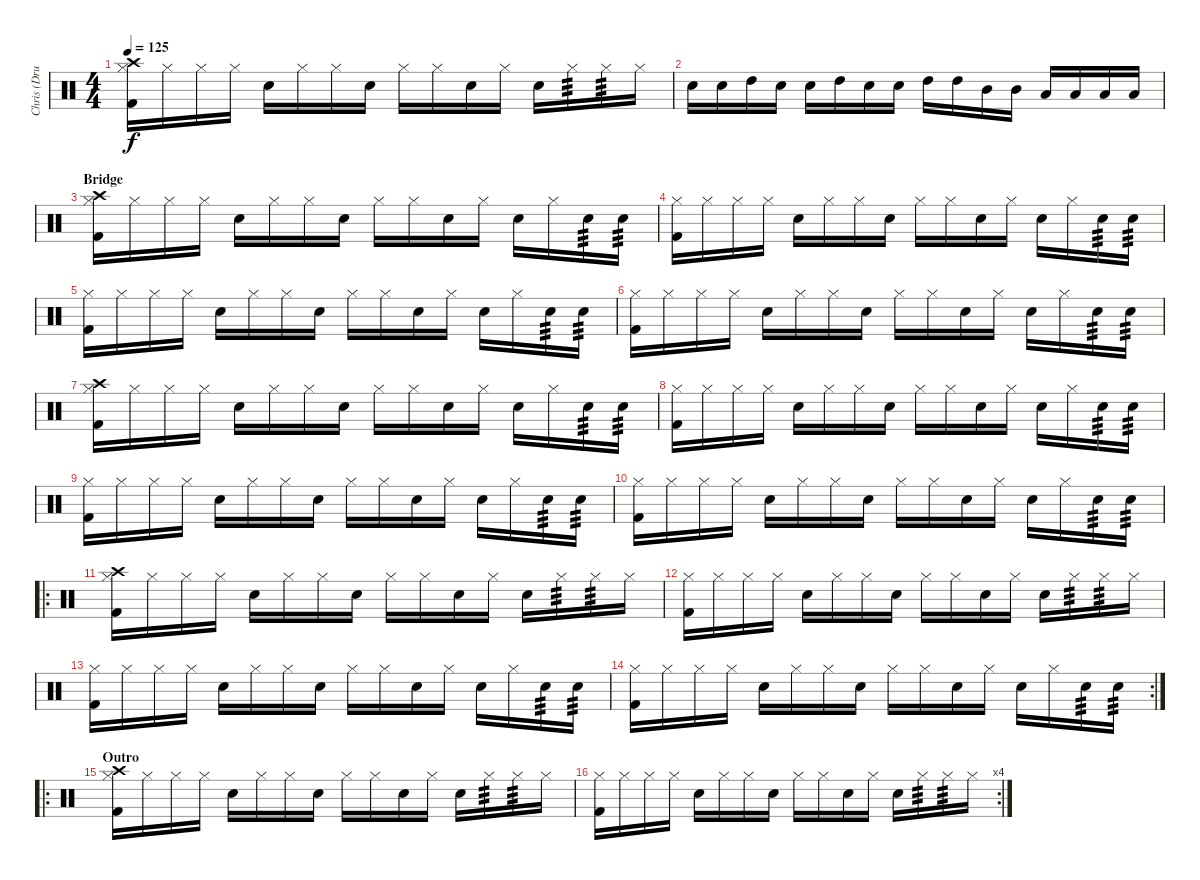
\track ("Chris (Drums)" "Chris (Dru") {instrument percussion}
\staff {score}
\articulation defaults
\ts (4 4)
\tempo 125
\clef neutral
\ks c
("Crash high (hit)" "Hi-Hat (closed)" "Kick (hit) 2").16{dy f} "Hi-Hat (closed)".16 "Hi-Hat (closed)".16 "Hi-Hat (closed)".16 "Snare (hit) 2".16 "Hi-Hat (closed)".16 "Hi-Hat (closed)".16 "Snare (hit) 2".16 "Hi-Hat (closed)".16 "Hi-Hat (closed)".16 "Snare (hit) 2".16 "Hi-Hat (closed)".16 "Snare (hit) 2".16 "Hi-Hat (closed)".16{tp 3} "Hi-Hat (closed)".16{tp 3} "Hi-Hat (closed)".16 |
"Snare (hit) 2".16 "Snare (hit) 2".16 "High Tom (hit)".16 "Snare (hit) 2".16 "Snare (hit) 2".16 "High Tom (hit)".16 "Snare (hit) 2".16 "Snare (hit) 2".16 "High Tom (hit)".16 "High Tom (hit)".16 "Mid Tom (hit)".16 "Mid Tom (hit)".16 "Low Tom (hit)".16 "Low Tom (hit)".16 "Low Tom (hit)".16 "Low Tom (hit)".16 |
\section ("" "Bridge")
("Crash high (hit)" "Hi-Hat (closed)" "Kick (hit) 2").16 "Hi-Hat (closed)".16 "Hi-Hat (closed)".16 "Hi-Hat (closed)".16 "Snare (hit) 2".16 "Hi-Hat (closed)".16 "Hi-Hat (closed)".16 "Snare (hit) 2".16 "Hi-Hat (closed)".16 "Hi-Hat (closed)".16 "Snare (hit) 2".16 "Hi-Hat (closed)".16 "Snare (hit) 2".16 "Hi-Hat (closed)".16 "Snare (hit) 2".16{tp 3} "Snare (hit) 2".16{tp 3} |
("Hi-Hat (closed)" "Kick (hit) 2").16 "Hi-Hat (closed)".16 "Hi-Hat (closed)".16 "Hi-Hat (closed)".16 "Snare (hit) 2".16 "Hi-Hat (closed)".16 "Hi-Hat (closed)".16 "Snare (hit) 2".16 "Hi-Hat (closed)".16 "Hi-Hat (closed)".16 "Snare (hit) 2".16 "Hi-Hat (closed)".16 "Snare (hit) 2".16 "Hi-Hat (closed)".16 "Snare (hit) 2".16{tp 3} "Snare (hit) 2".16{tp 3} |
("Hi-Hat (closed)" "Kick (hit) 2").16 "Hi-Hat (closed)".16 "Hi-Hat (closed)".16 "Hi-Hat (closed)".16 "Snare (hit) 2".16 "Hi-Hat (closed)".16 "Hi-Hat (closed)".16 "Snare (hit) 2".16 "Hi-Hat (closed)".16 "Hi-Hat (closed)".16 "Snare (hit) 2".16 "Hi-Hat (closed)".16 "Snare (hit) 2".16 "Hi-Hat (closed)".16 "Snare (hit) 2".16{tp 3} "Snare (hit) 2".16{tp 3} |
("Hi-Hat (closed)" "Kick (hit) 2").16 "Hi-Hat (closed)".16 "Hi-Hat (closed)".16 "Hi-Hat (closed)".16 "Snare (hit) 2".16 "Hi-Hat (closed)".16 "Hi-Hat (closed)".16 "Snare (hit) 2".16 "Hi-Hat (closed)".16 "Hi-Hat (closed)".16 "Snare (hit) 2".16 "Hi-Hat (closed)".16 "Snare (hit) 2".16 "Hi-Hat (closed)".16 "Snare (hit) 2".16{tp 3} "Snare (hit) 2".16{tp 3} |
("Crash high (hit)" "Hi-Hat (closed)" "Kick (hit) 2").16 "Hi-Hat (closed)".16 "Hi-Hat (closed)".16 "Hi-Hat (closed)".16 "Snare (hit) 2".16 "Hi-Hat (closed)".16 "Hi-Hat (closed)".16 "Snare (hit) 2".16 "Hi-Hat (closed)".16 "Hi-Hat (closed)".16 "Snare (hit) 2".16 "Hi-Hat (closed)".16 "Snare (hit) 2".16 "Hi-Hat (closed)".16 "Snare (hit) 2".16{tp 3} "Snare (hit) 2".16{tp 3} |
("Hi-Hat (closed)" "Kick (hit) 2").16 "Hi-Hat (closed)".16 "Hi-Hat (closed)".16 "Hi-Hat (closed)".16 "Snare (hit) 2".16 "Hi-Hat (closed)".16 "Hi-Hat (closed)".16 "Snare (hit) 2".16 "Hi-Hat (closed)".16 "Hi-Hat (closed)".16 "Snare (hit) 2".16 "Hi-Hat (closed)".16 "Snare (hit) 2".16 "Hi-Hat (closed)".16 "Snare (hit) 2".16{tp 3} "Snare (hit) 2".16{tp 3} |
("Hi-Hat (closed)" "Kick (hit) 2").16 "Hi-Hat (closed)".16 "Hi-Hat (closed)".16 "Hi-Hat (closed)".16 "Snare (hit) 2".16 "Hi-Hat (closed)".16 "Hi-Hat (closed)".16 "Snare (hit) 2".16 "Hi-Hat (closed)".16 "Hi-Hat (closed)".16 "Snare (hit) 2".16 "Hi-Hat (closed)".16 "Snare (hit) 2".16 "Hi-Hat (closed)".16 "Snare (hit) 2".16{tp 3} "Snare (hit) 2".16{tp 3} |
("Hi-Hat (closed)" "Kick (hit) 2").16 "Hi-Hat (closed)".16 "Hi-Hat (closed)".16 "Hi-Hat (closed)".16 "Snare (hit) 2".16 "Hi-Hat (closed)".16 "Hi-Hat (closed)".16 "Snare (hit) 2".16 "Hi-Hat (closed)".16 "Hi-Hat (closed)".16 "Snare (hit) 2".16 "Hi-Hat (closed)".16 "Snare (hit) 2".16 "Hi-Hat (closed)".16 "Snare (hit) 2".16{tp 3} "Snare (hit) 2".16{tp 3} |
\ro
("Crash high (hit)" "Hi-Hat (closed)" "Kick (hit) 2").16 "Hi-Hat (closed)".16 "Hi-Hat (closed)".16 "Hi-Hat (closed)".16 "Snare (hit) 2".16 "Hi-Hat (closed)".16 "Hi-Hat (closed)".16 "Snare (hit) 2".16 "Hi-Hat (closed)".16 "Hi-Hat (closed)".16 "Snare (hit) 2".16 "Hi-Hat (closed)".16 "Snare (hit) 2".16 "Hi-Hat (closed)".16{tp 3} "Hi-Hat (closed)".16{tp 3} "Hi-Hat (closed)".16 |
("Hi-Hat (closed)" "Kick (hit) 2").16 "Hi-Hat (closed)".16 "Hi-Hat (closed)".16 "Hi-Hat (closed)".16 "Snare (hit) 2".16 "Hi-Hat (closed)".16 "Hi-Hat (closed)".16 "Snare (hit) 2".16 "Hi-Hat (closed)".16 "Hi-Hat (closed)".16 "Snare (hit) 2".16 "Hi-Hat (closed)".16 "Snare (hit) 2".16 "Hi-Hat (closed)".16{tp 3} "Hi-Hat (closed)".16{tp 3} "Hi-Hat (closed)".16 |
("Hi-Hat (closed)" "Kick (hit) 2").16 "Hi-Hat (closed)".16 "Hi-Hat (closed)".16 "Hi-Hat (closed)".16 "Snare (hit) 2".16 "Hi-Hat (closed)".16 "Hi-Hat (closed)".16 "Snare (hit) 2".16 "Hi-Hat (closed)".16 "Hi-Hat (closed)".16 "Snare (hit) 2".16 "Hi-Hat (closed)".16 "Snare (hit) 2".16 "Hi-Hat (closed)".16 "Snare (hit) 2".16{tp 3} "Snare (hit) 2".16{tp 3} |
\rc 2
("Hi-Hat (closed)" "Kick (hit) 2").16 "Hi-Hat (closed)".16 "Hi-Hat (closed)".16 "Hi-Hat (closed)".16 "Snare (hit) 2".16 "Hi-Hat (closed)".16 "Hi-Hat (closed)".16 "Snare (hit) 2".16 "Hi-Hat (closed)".16 "Hi-Hat (closed)".16 "Snare (hit) 2".16 "Hi-Hat (closed)".16 "Snare (hit) 2".16 "Hi-Hat (closed)".16 "Snare (hit) 2".16{tp 3} "Snare (hit) 2".16{tp 3} |
\ro
\section ("" "Outro")
("Crash high (hit)" "Hi-Hat (closed)" "Kick (hit) 2").16 "Hi-Hat (closed)".16 "Hi-Hat (closed)".16 "Hi-Hat (closed)".16 "Snare (hit) 2".16 "Hi-Hat (closed)".16 "Hi-Hat (closed)".16 "Snare (hit) 2".16 "Hi-Hat (closed)".16 "Hi-Hat (closed)".16 "Snare (hit) 2".16 "Hi-Hat (closed)".16 "Snare (hit) 2".16 "Hi-Hat (closed)".16{tp 3} "Hi-Hat (closed)".16{tp 3} "Hi-Hat (closed)".16 |
\rc 4
("Hi-Hat (closed)" "Kick (hit) 2").16 "Hi-Hat (closed)".16 "Hi-Hat (closed)".16 "Hi-Hat (closed)".16 "Snare (hit) 2".16 "Hi-Hat (closed)".16 "Hi-Hat (closed)".16 "Snare (hit) 2".16 "Hi-Hat (closed)".16 "Hi-Hat (closed)".16 "Snare (hit) 2".16 "Hi-Hat (closed)".16 "Snare (hit) 2".16 "Hi-Hat (closed)".16{tp 3} "Hi-Hat (closed)".16{tp 3} "Hi-Hat (closed)".16
